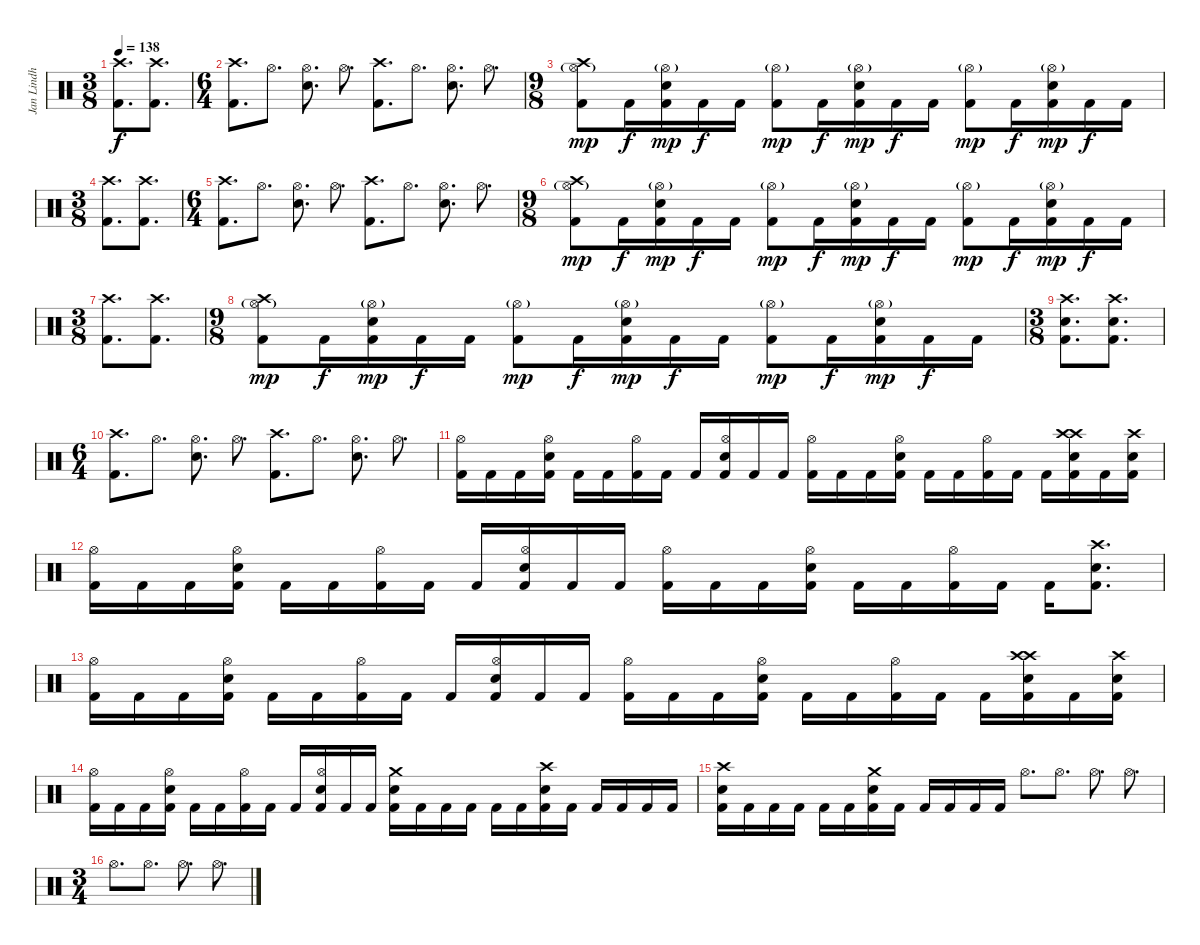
\track ("Jan Lindh" "Jan Lindh") {instrument percussion}
\staff {score}
\articulation defaults
\ts (3 8)
\tempo 138
\clef neutral
\ks c
("Crash high (hit)" "Kick (hit) 2").8{d dy f} ("Crash high (hit)" "Kick (hit) 2").8{d} |
\ts (6 4)
("Crash high (hit)" "Kick (hit) 2").8{d} "Hi-Hat (open)".8{d} ("Hi-Hat (open)" "Electric Snare (hit)").8{d} "Hi-Hat (open)".8{d} ("Crash high (hit)" "Kick (hit) 2").8{d} "Hi-Hat (open)".8{d} ("Hi-Hat (open)" "Electric Snare (hit)").8{d} "Hi-Hat (open)".8{d} |
\ts (9 8)
("Crash high (hit)" "Hi-Hat (open)"{g} "Kick (hit) 2").8{dy mp} "Kick (hit) 2".16{dy f} ("Hi-Hat (open)"{g} "Electric Snare (hit)" "Kick (hit) 2").16{dy mp} "Kick (hit) 2".16{dy f} "Kick (hit) 2".16 ("Hi-Hat (open)"{g} "Kick (hit) 2").8{dy mp} "Kick (hit) 2".16{dy f} ("Hi-Hat (open)"{g} "Electric Snare (hit)" "Kick (hit) 2").16{dy mp} "Kick (hit) 2".16{dy f} "Kick (hit) 2".16 ("Hi-Hat (open)"{g} "Kick (hit) 2").8{dy mp} "Kick (hit) 2".16{dy f} ("Hi-Hat (open)"{g} "Electric Snare (hit)" "Kick (hit) 2").16{dy mp} "Kick (hit) 2".16{dy f} "Kick (hit) 2".16 |
\ts (3 8)
("Crash high (hit)" "Kick (hit) 2").8{d} ("Crash high (hit)" "Kick (hit) 2").8{d} |
\ts (6 4)
("Crash high (hit)" "Kick (hit) 2").8{d} "Hi-Hat (open)".8{d} ("Hi-Hat (open)" "Electric Snare (hit)").8{d} "Hi-Hat (open)".8{d} ("Crash high (hit)" "Kick (hit) 2").8{d} "Hi-Hat (open)".8{d} ("Hi-Hat (open)" "Electric Snare (hit)").8{d} "Hi-Hat (open)".8{d} |
\ts (9 8)
("Crash high (hit)" "Hi-Hat (open)"{g} "Kick (hit) 2").8{dy mp} "Kick (hit) 2".16{dy f} ("Hi-Hat (open)"{g} "Electric Snare (hit)" "Kick (hit) 2").16{dy mp} "Kick (hit) 2".16{dy f} "Kick (hit) 2".16 ("Hi-Hat (open)"{g} "Kick (hit) 2").8{dy mp} "Kick (hit) 2".16{dy f} ("Hi-Hat (open)"{g} "Electric Snare (hit)" "Kick (hit) 2").16{dy mp} "Kick (hit) 2".16{dy f} "Kick (hit) 2".16 ("Hi-Hat (open)"{g} "Kick (hit) 2").8{dy mp} "Kick (hit) 2".16{dy f} ("Hi-Hat (open)"{g} "Electric Snare (hit)" "Kick (hit) 2").16{dy mp} "Kick (hit) 2".16{dy f} "Kick (hit) 2".16 |
\ts (3 8)
("Crash high (hit)" "Kick (hit) 2").8{d} ("Crash high (hit)" "Kick (hit) 2").8{d} |
\ts (9 8)
("Crash high (hit)" "Hi-Hat (open)"{g} "Kick (hit) 2").8{dy mp} "Kick (hit) 2".16{dy f} ("Hi-Hat (open)"{g} "Electric Snare (hit)" "Kick (hit) 2").16{dy mp} "Kick (hit) 2".16{dy f} "Kick (hit) 2".16 ("Hi-Hat (open)"{g} "Kick (hit) 2").8{dy mp} "Kick (hit) 2".16{dy f} ("Hi-Hat (open)"{g} "Electric Snare (hit)" "Kick (hit) 2").16{dy mp} "Kick (hit) 2".16{dy f} "Kick (hit) 2".16 ("Hi-Hat (open)"{g} "Kick (hit) 2").8{dy mp} "Kick (hit) 2".16{dy f} ("Hi-Hat (open)"{g} "Electric Snare (hit)" "Kick (hit) 2").16{dy mp} "Kick (hit) 2".16{dy f} "Kick (hit) 2".16 |
\ts (3 8)
("Crash high (hit)" "Electric Snare (hit)" "Kick (hit) 2").8{d} ("Crash high (hit)" "Electric Snare (hit)" "Kick (hit) 2").8{d} |
\ts (6 4)
("Crash high (hit)" "Kick (hit) 2").8{d} "Hi-Hat (open)".8{d} ("Hi-Hat (open)" "Electric Snare (hit)").8{d} "Hi-Hat (open)".8{d} ("Crash high (hit)" "Kick (hit) 2").8{d} "Hi-Hat (open)".8{d} ("Hi-Hat (open)" "Electric Snare (hit)").8{d} "Hi-Hat (open)".8{d} |
("Hi-Hat (open)" "Kick (hit) 2").16 "Kick (hit) 2".16 "Kick (hit) 2".16 ("Hi-Hat (open)" "Electric Snare (hit)" "Kick (hit) 2").16 "Kick (hit) 2".16 "Kick (hit) 2".16 ("Hi-Hat (open)" "Kick (hit) 2").16 "Kick (hit) 2".16 "Kick (hit) 2".16 ("Hi-Hat (open)" "Electric Snare (hit)" "Kick (hit) 2").16 "Kick (hit) 2".16 "Kick (hit) 2".16 ("Hi-Hat (open)" "Kick (hit) 2").16 "Kick (hit) 2".16 "Kick (hit) 2".16 ("Hi-Hat (open)" "Electric Snare (hit)" "Kick (hit) 2").16 "Kick (hit) 2".16 "Kick (hit) 2".16 ("Hi-Hat (open)" "Kick (hit) 2").16 "Kick (hit) 2".16 "Kick (hit) 2".16 ("Crash high (hit)" "Crash high (hit)" "Electric Snare (hit)" "Kick (hit) 2").16 "Kick (hit) 2".16 ("Crash high (hit)" "Electric Snare (hit)" "Kick (hit) 2").16 |
("Hi-Hat (open)" "Kick (hit) 2").16 "Kick (hit) 2".16 "Kick (hit) 2".16 ("Hi-Hat (open)" "Electric Snare (hit)" "Kick (hit) 2").16 "Kick (hit) 2".16 "Kick (hit) 2".16 ("Hi-Hat (open)" "Kick (hit) 2").16 "Kick (hit) 2".16 "Kick (hit) 2".16 ("Hi-Hat (open)" "Electric Snare (hit)" "Kick (hit) 2").16 "Kick (hit) 2".16 "Kick (hit) 2".16 ("Hi-Hat (open)" "Kick (hit) 2").16 "Kick (hit) 2".16 "Kick (hit) 2".16 ("Hi-Hat (open)" "Electric Snare (hit)" "Kick (hit) 2").16 "Kick (hit) 2".16 "Kick (hit) 2".16 ("Hi-Hat (open)" "Kick (hit) 2").16 "Kick (hit) 2".16 "Kick (hit) 2".16 ("Crash high (hit)" "Electric Snare (hit)" "Kick (hit) 2").8{d} |
("Hi-Hat (open)" "Kick (hit) 2").16 "Kick (hit) 2".16 "Kick (hit) 2".16 ("Hi-Hat (open)" "Electric Snare (hit)" "Kick (hit) 2").16 "Kick (hit) 2".16 "Kick (hit) 2".16 ("Hi-Hat (open)" "Kick (hit) 2").16 "Kick (hit) 2".16 "Kick (hit) 2".16 ("Hi-Hat (open)" "Electric Snare (hit)" "Kick (hit) 2").16 "Kick (hit) 2".16 "Kick (hit) 2".16 ("Hi-Hat (open)" "Kick (hit) 2").16 "Kick (hit) 2".16 "Kick (hit) 2".16 ("Hi-Hat (open)" "Electric Snare (hit)" "Kick (hit) 2").16 "Kick (hit) 2".16 "Kick (hit) 2".16 ("Hi-Hat (open)" "Kick (hit) 2").16 "Kick (hit) 2".16 "Kick (hit) 2".16 ("Crash high (hit)" "Crash high (hit)" "Electric Snare (hit)" "Kick (hit) 2").16 "Kick (hit) 2".16 ("Crash high (hit)" "Electric Snare (hit)" "Kick (hit) 2").16 |
("Hi-Hat (open)" "Kick (hit) 2").16 "Kick (hit) 2".16 "Kick (hit) 2".16 ("Hi-Hat (open)" "Electric Snare (hit)" "Kick (hit) 2").16 "Kick (hit) 2".16 "Kick (hit) 2".16 ("Hi-Hat (open)" "Kick (hit) 2").16 "Kick (hit) 2".16 "Kick (hit) 2".16 ("Hi-Hat (open)" "Electric Snare (hit)" "Kick (hit) 2").16 "Kick (hit) 2".16 "Kick (hit) 2".16 ("Crash medium (hit)" "Electric Snare (hit)" "Kick (hit) 2").16 "Kick (hit) 2".16 "Kick (hit) 2".16 "Kick (hit) 2".16 "Kick (hit) 2".16 "Kick (hit) 2".16 ("Crash high (hit)" "Electric Snare (hit)" "Kick (hit) 2").16 "Kick (hit) 2".16 "Kick (hit) 2".16 "Kick (hit) 2".16 "Kick (hit) 2".16 "Kick (hit) 2".16 |
("Crash high (hit)" "Electric Snare (hit)" "Kick (hit) 2").16 "Kick (hit) 2".16 "Kick (hit) 2".16 "Kick (hit) 2".16 "Kick (hit) 2".16 "Kick (hit) 2".16 ("Crash medium (hit)" "Electric Snare (hit)" "Kick (hit) 2").16 "Kick (hit) 2".16 "Kick (hit) 2".16 "Kick (hit) 2".16 "Kick (hit) 2".16 "Kick (hit) 2".16 "Hi-Hat (open)".8{d} "Hi-Hat (open)".8{d} "Hi-Hat (open)".8{d} "Hi-Hat (open)".8{d} |
\ts (3 4)
"Hi-Hat (open)".8{d} "Hi-Hat (open)".8{d} "Hi-Hat (open)".8{d} "Hi-Hat (open)".8{d}
